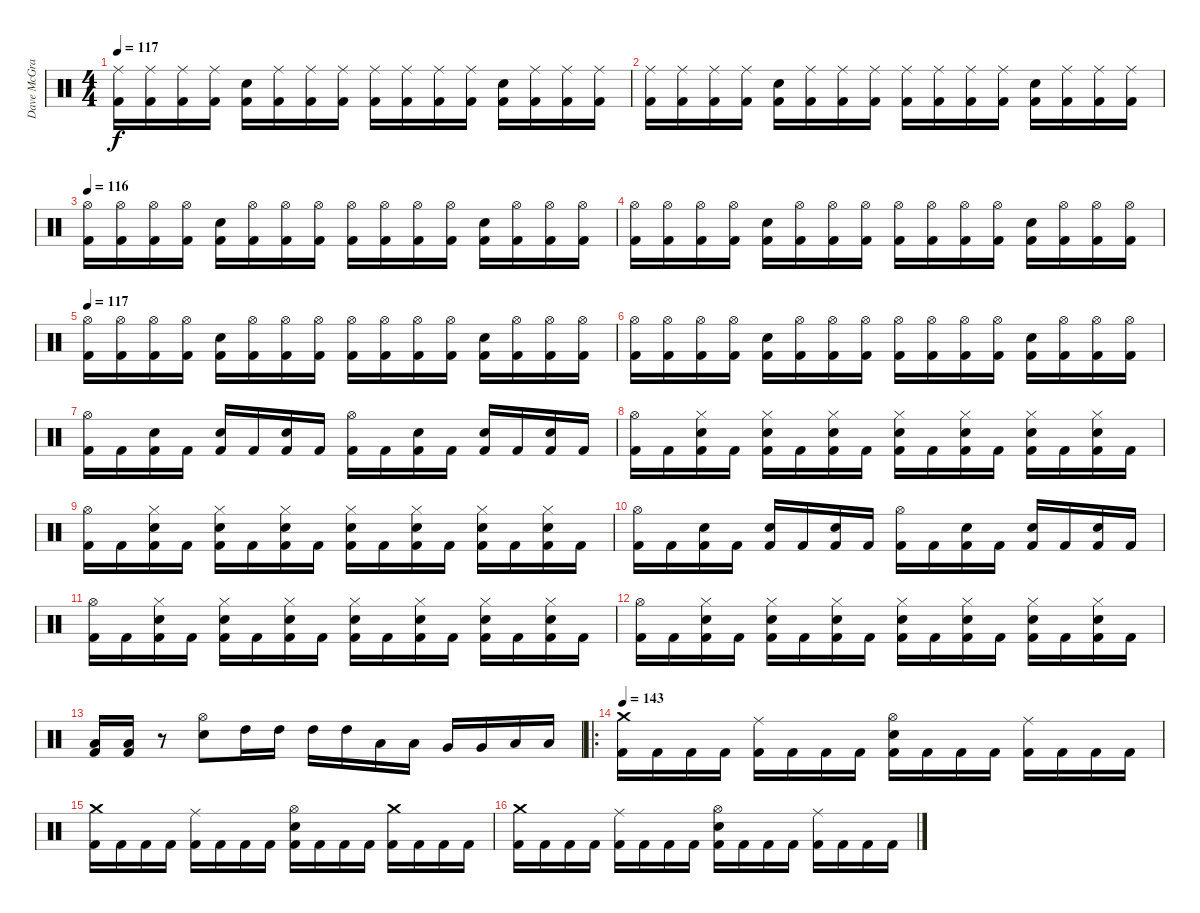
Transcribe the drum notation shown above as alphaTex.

\track ("Dave McGraw" "Dave McGra") {instrument percussion}
\staff {score}
\articulation defaults
\ts (4 4)
\tempo 117
\clef neutral
\ks c
("Ride (middle)" "Kick (hit) 2").16{dy f} ("Ride (middle)" "Kick (hit) 2").16 ("Ride (middle)" "Kick (hit) 2").16 ("Ride (middle)" "Kick (hit) 2").16 ("Electric Snare (hit)" "Kick (hit) 2").16 ("Ride (middle)" "Kick (hit) 2").16 ("Ride (middle)" "Kick (hit) 2").16 ("Ride (middle)" "Kick (hit) 2").16 ("Ride (middle)" "Kick (hit) 2").16 ("Ride (middle)" "Kick (hit) 2").16 ("Ride (middle)" "Kick (hit) 2").16 ("Ride (middle)" "Kick (hit) 2").16 ("Electric Snare (hit)" "Kick (hit) 2").16 ("Ride (middle)" "Kick (hit) 2").16 ("Ride (middle)" "Kick (hit) 2").16 ("Ride (middle)" "Kick (hit) 2").16 |
("Ride (middle)" "Kick (hit) 2").16 ("Ride (middle)" "Kick (hit) 2").16 ("Ride (middle)" "Kick (hit) 2").16 ("Ride (middle)" "Kick (hit) 2").16 ("Electric Snare (hit)" "Kick (hit) 2").16 ("Ride (middle)" "Kick (hit) 2").16 ("Ride (middle)" "Kick (hit) 2").16 ("Ride (middle)" "Kick (hit) 2").16 ("Ride (middle)" "Kick (hit) 2").16 ("Ride (middle)" "Kick (hit) 2").16 ("Ride (middle)" "Kick (hit) 2").16 ("Ride (middle)" "Kick (hit) 2").16 ("Electric Snare (hit)" "Kick (hit) 2").16 ("Ride (middle)" "Kick (hit) 2").16 ("Ride (middle)" "Kick (hit) 2").16 ("Ride (middle)" "Kick (hit) 2").16 |
\tempo 116
("Hi-Hat (open)" "Kick (hit) 2").16 ("Hi-Hat (open)" "Kick (hit) 2").16 ("Hi-Hat (open)" "Kick (hit) 2").16 ("Hi-Hat (open)" "Kick (hit) 2").16 ("Electric Snare (hit)" "Kick (hit) 2").16 ("Hi-Hat (open)" "Kick (hit) 2").16 ("Hi-Hat (open)" "Kick (hit) 2").16 ("Hi-Hat (open)" "Kick (hit) 2").16 ("Hi-Hat (open)" "Kick (hit) 2").16 ("Hi-Hat (open)" "Kick (hit) 2").16 ("Hi-Hat (open)" "Kick (hit) 2").16 ("Hi-Hat (open)" "Kick (hit) 2").16 ("Electric Snare (hit)" "Kick (hit) 2").16 ("Hi-Hat (open)" "Kick (hit) 2").16 ("Hi-Hat (open)" "Kick (hit) 2").16 ("Hi-Hat (open)" "Kick (hit) 2").16 |
("Hi-Hat (open)" "Kick (hit) 2").16 ("Hi-Hat (open)" "Kick (hit) 2").16 ("Hi-Hat (open)" "Kick (hit) 2").16 ("Hi-Hat (open)" "Kick (hit) 2").16 ("Electric Snare (hit)" "Kick (hit) 2").16 ("Hi-Hat (open)" "Kick (hit) 2").16 ("Hi-Hat (open)" "Kick (hit) 2").16 ("Hi-Hat (open)" "Kick (hit) 2").16 ("Hi-Hat (open)" "Kick (hit) 2").16 ("Hi-Hat (open)" "Kick (hit) 2").16 ("Hi-Hat (open)" "Kick (hit) 2").16 ("Hi-Hat (open)" "Kick (hit) 2").16 ("Electric Snare (hit)" "Kick (hit) 2").16 ("Hi-Hat (open)" "Kick (hit) 2").16 ("Hi-Hat (open)" "Kick (hit) 2").16 ("Hi-Hat (open)" "Kick (hit) 2").16 |
\tempo 117
("Hi-Hat (open)" "Kick (hit) 2").16 ("Hi-Hat (open)" "Kick (hit) 2").16 ("Hi-Hat (open)" "Kick (hit) 2").16 ("Hi-Hat (open)" "Kick (hit) 2").16 ("Electric Snare (hit)" "Kick (hit) 2").16 ("Hi-Hat (open)" "Kick (hit) 2").16 ("Hi-Hat (open)" "Kick (hit) 2").16 ("Hi-Hat (open)" "Kick (hit) 2").16 ("Hi-Hat (open)" "Kick (hit) 2").16 ("Hi-Hat (open)" "Kick (hit) 2").16 ("Hi-Hat (open)" "Kick (hit) 2").16 ("Hi-Hat (open)" "Kick (hit) 2").16 ("Electric Snare (hit)" "Kick (hit) 2").16 ("Hi-Hat (open)" "Kick (hit) 2").16 ("Hi-Hat (open)" "Kick (hit) 2").16 ("Hi-Hat (open)" "Kick (hit) 2").16 |
("Hi-Hat (open)" "Kick (hit) 2").16 ("Hi-Hat (open)" "Kick (hit) 2").16 ("Hi-Hat (open)" "Kick (hit) 2").16 ("Hi-Hat (open)" "Kick (hit) 2").16 ("Electric Snare (hit)" "Kick (hit) 2").16 ("Hi-Hat (open)" "Kick (hit) 2").16 ("Hi-Hat (open)" "Kick (hit) 2").16 ("Hi-Hat (open)" "Kick (hit) 2").16 ("Hi-Hat (open)" "Kick (hit) 2").16 ("Hi-Hat (open)" "Kick (hit) 2").16 ("Hi-Hat (open)" "Kick (hit) 2").16 ("Hi-Hat (open)" "Kick (hit) 2").16 ("Electric Snare (hit)" "Kick (hit) 2").16 ("Hi-Hat (open)" "Kick (hit) 2").16 ("Hi-Hat (open)" "Kick (hit) 2").16 ("Hi-Hat (open)" "Kick (hit) 2").16 |
("Hi-Hat (open)" "Kick (hit) 2").16 "Kick (hit) 2".16 ("Electric Snare (hit)" "Kick (hit) 2").16 "Kick (hit) 2".16 ("Electric Snare (hit)" "Kick (hit) 2").16 "Kick (hit) 2".16 ("Electric Snare (hit)" "Kick (hit) 2").16 "Kick (hit) 2".16 ("Hi-Hat (open)" "Kick (hit) 2").16 "Kick (hit) 2".16 ("Electric Snare (hit)" "Kick (hit) 2").16 "Kick (hit) 2".16 ("Electric Snare (hit)" "Kick (hit) 2").16 "Kick (hit) 2".16 ("Electric Snare (hit)" "Kick (hit) 2").16 "Kick (hit) 2".16 |
("Hi-Hat (open)" "Kick (hit) 2").16 "Kick (hit) 2".16 ("Hi-Hat (closed)" "Electric Snare (hit)" "Kick (hit) 2").16 "Kick (hit) 2".16 ("Hi-Hat (closed)" "Electric Snare (hit)" "Kick (hit) 2").16 "Kick (hit) 2".16 ("Hi-Hat (closed)" "Electric Snare (hit)" "Kick (hit) 2").16 "Kick (hit) 2".16 ("Hi-Hat (closed)" "Electric Snare (hit)" "Kick (hit) 2").16 "Kick (hit) 2".16 ("Hi-Hat (closed)" "Electric Snare (hit)" "Kick (hit) 2").16 "Kick (hit) 2".16 ("Hi-Hat (closed)" "Electric Snare (hit)" "Kick (hit) 2").16 "Kick (hit) 2".16 ("Hi-Hat (closed)" "Electric Snare (hit)" "Kick (hit) 2").16 "Kick (hit) 2".16 |
("Hi-Hat (open)" "Kick (hit) 2").16 "Kick (hit) 2".16 ("Hi-Hat (closed)" "Electric Snare (hit)" "Kick (hit) 2").16 "Kick (hit) 2".16 ("Hi-Hat (closed)" "Electric Snare (hit)" "Kick (hit) 2").16 "Kick (hit) 2".16 ("Hi-Hat (closed)" "Electric Snare (hit)" "Kick (hit) 2").16 "Kick (hit) 2".16 ("Hi-Hat (closed)" "Electric Snare (hit)" "Kick (hit) 2").16 "Kick (hit) 2".16 ("Hi-Hat (closed)" "Electric Snare (hit)" "Kick (hit) 2").16 "Kick (hit) 2".16 ("Hi-Hat (closed)" "Electric Snare (hit)" "Kick (hit) 2").16 "Kick (hit) 2".16 ("Hi-Hat (closed)" "Electric Snare (hit)" "Kick (hit) 2").16 "Kick (hit) 2".16 |
("Hi-Hat (open)" "Kick (hit) 2").16 "Kick (hit) 2".16 ("Electric Snare (hit)" "Kick (hit) 2").16 "Kick (hit) 2".16 ("Electric Snare (hit)" "Kick (hit) 2").16 "Kick (hit) 2".16 ("Electric Snare (hit)" "Kick (hit) 2").16 "Kick (hit) 2".16 ("Hi-Hat (open)" "Kick (hit) 2").16 "Kick (hit) 2".16 ("Electric Snare (hit)" "Kick (hit) 2").16 "Kick (hit) 2".16 ("Electric Snare (hit)" "Kick (hit) 2").16 "Kick (hit) 2".16 ("Electric Snare (hit)" "Kick (hit) 2").16 "Kick (hit) 2".16 |
("Hi-Hat (open)" "Kick (hit) 2").16 "Kick (hit) 2".16 ("Hi-Hat (closed)" "Electric Snare (hit)" "Kick (hit) 2").16 "Kick (hit) 2".16 ("Hi-Hat (closed)" "Electric Snare (hit)" "Kick (hit) 2").16 "Kick (hit) 2".16 ("Hi-Hat (closed)" "Electric Snare (hit)" "Kick (hit) 2").16 "Kick (hit) 2".16 ("Hi-Hat (closed)" "Electric Snare (hit)" "Kick (hit) 2").16 "Kick (hit) 2".16 ("Hi-Hat (closed)" "Electric Snare (hit)" "Kick (hit) 2").16 "Kick (hit) 2".16 ("Hi-Hat (closed)" "Electric Snare (hit)" "Kick (hit) 2").16 "Kick (hit) 2".16 ("Hi-Hat (closed)" "Electric Snare (hit)" "Kick (hit) 2").16 "Kick (hit) 2".16 |
("Hi-Hat (open)" "Kick (hit) 2").16 "Kick (hit) 2".16 ("Hi-Hat (closed)" "Electric Snare (hit)" "Kick (hit) 2").16 "Kick (hit) 2".16 ("Hi-Hat (closed)" "Electric Snare (hit)" "Kick (hit) 2").16 "Kick (hit) 2".16 ("Hi-Hat (closed)" "Electric Snare (hit)" "Kick (hit) 2").16 "Kick (hit) 2".16 ("Hi-Hat (closed)" "Electric Snare (hit)" "Kick (hit) 2").16 "Kick (hit) 2".16 ("Hi-Hat (closed)" "Electric Snare (hit)" "Kick (hit) 2").16 "Kick (hit) 2".16 ("Hi-Hat (closed)" "Electric Snare (hit)" "Kick (hit) 2").16 "Kick (hit) 2".16 ("Hi-Hat (closed)" "Electric Snare (hit)" "Kick (hit) 2").16 "Kick (hit) 2".16 |
("Low Tom (hit)" "Kick (hit) 2").16 ("Low Tom (hit)" "Kick (hit) 2").16 r.8 ("Hi-Hat (open)" "Electric Snare (hit)").8 "High Tom (hit)".16 "High Tom (hit)".16 "High Tom (hit)".16 "High Tom (hit)".16 "Low Tom (hit)".16 "Low Tom (hit)".16 "Very Low Tom (hit)".16 "Very Low Tom (hit)".16 "Low Floor Tom (hit)".16 "Low Floor Tom (hit)".16 |
\ro
\tempo 143
("Crash medium (hit)" "Kick (hit) 2").16 "Kick (hit) 2".16 "Kick (hit) 2".16 "Kick (hit) 2".16 ("Ride (middle)" "Kick (hit) 2").16 "Kick (hit) 2".16 "Kick (hit) 2".16 "Kick (hit) 2".16 ("Hi-Hat (open)" "Electric Snare (hit)" "Kick (hit) 2").16 "Kick (hit) 2".16 "Kick (hit) 2".16 "Kick (hit) 2".16 ("Ride (middle)" "Kick (hit) 2").16 "Kick (hit) 2".16 "Kick (hit) 2".16 "Kick (hit) 2".16 |
("Crash medium (hit)" "Kick (hit) 2").16 "Kick (hit) 2".16 "Kick (hit) 2".16 "Kick (hit) 2".16 ("Ride (middle)" "Kick (hit) 2").16 "Kick (hit) 2".16 "Kick (hit) 2".16 "Kick (hit) 2".16 ("Hi-Hat (open)" "Electric Snare (hit)" "Kick (hit) 2").16 "Kick (hit) 2".16 "Kick (hit) 2".16 "Kick (hit) 2".16 ("Crash medium (hit)" "Kick (hit) 2").16 "Kick (hit) 2".16 "Kick (hit) 2".16 "Kick (hit) 2".16 |
("Crash medium (hit)" "Kick (hit) 2").16 "Kick (hit) 2".16 "Kick (hit) 2".16 "Kick (hit) 2".16 ("Ride (middle)" "Kick (hit) 2").16 "Kick (hit) 2".16 "Kick (hit) 2".16 "Kick (hit) 2".16 ("Hi-Hat (open)" "Electric Snare (hit)" "Kick (hit) 2").16 "Kick (hit) 2".16 "Kick (hit) 2".16 "Kick (hit) 2".16 ("Ride (middle)" "Kick (hit) 2").16 "Kick (hit) 2".16 "Kick (hit) 2".16 "Kick (hit) 2".16
